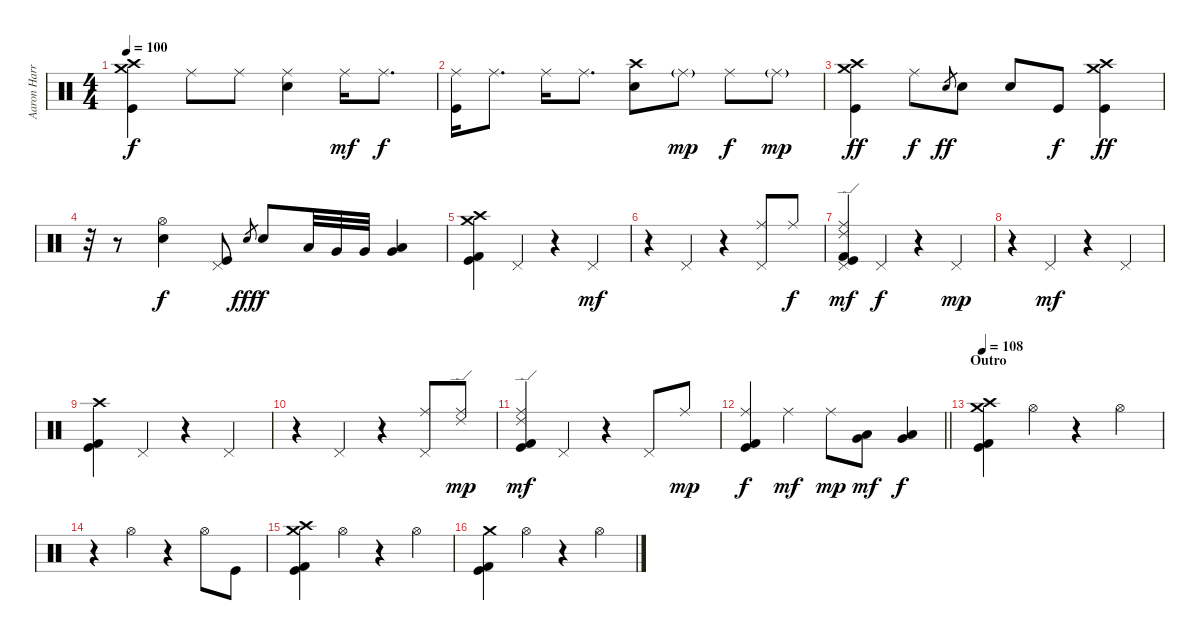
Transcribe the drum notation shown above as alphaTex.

\track ("Aaron Harris" "Aaron Harr") {instrument percussion}
\staff {score}
\articulation defaults
\ts (4 4)
\tempo 100
\clef neutral
\ks c
("Crash medium (hit)" "Crash high (hit)" "Kick (hit)").4{dy f} "Ride (middle)".8 "Ride (middle)".8 ("Ride (middle)" "Electric Snare (hit)").4 "Ride (middle)".16{dy mf} "Ride (middle)".8{d dy f} |
("Ride (middle)" "Kick (hit)").16 "Ride (middle)".8{d} "Ride (middle)".16 "Ride (middle)".8{d} ("Crash high (hit)" "Electric Snare (hit)").8 "Ride (middle)"{g}.8{dy mp} "Ride (middle)".8{dy f} "Ride (middle)"{g}.8{dy mp} |
("Crash medium (hit)" "Crash high (hit)" "Kick (hit)").4{dy ff} "Ride (middle)".8{dy f} "Electric Snare (hit)".8{gr dy ff} "Electric Snare (hit)".8 "Electric Snare (hit)".8 "Kick (hit)".8{dy f} ("Crash medium (hit)" "Crash high (hit)" "Kick (hit)").4{dy ff} |
r.32 r.8 ("Hi-Hat (open)" "Electric Snare (hit)").4{dy f} ("Pedal Hi-Hat (hit)" "Kick (hit)").8 "Electric Snare (hit)".8{gr dy fff} "Electric Snare (hit)".8{dy f} "Low Tom (hit)".32 "Very Low Tom (hit)".32 "Very Low Tom (hit)".32 ("Very Low Tom (hit)" "Low Floor Tom (hit)").4 |
("Crash medium (hit)" "Crash high (hit)" "Kick (hit) 2" "Kick (hit)").4 "Pedal Hi-Hat (hit)".4 r.4 "Pedal Hi-Hat (hit)".4{dy mf} |
r.4 "Pedal Hi-Hat (hit)".4 r.4 ("Ride (middle)" "Pedal Hi-Hat (hit)").8 "Ride (middle)".8{dy f} |
("Ride (edge) 2" "Ride (middle)" "Pedal Hi-Hat (hit)" "Kick (hit) 2" "Kick (hit)").4{dy mf} "Pedal Hi-Hat (hit)".4{dy f} r.4 "Pedal Hi-Hat (hit)".4{dy mp} |
r.4 "Pedal Hi-Hat (hit)".4{dy mf} r.4 "Pedal Hi-Hat (hit)".4 |
("Crash high (hit)" "Kick (hit) 2" "Kick (hit)").4 "Pedal Hi-Hat (hit)".4 r.4 "Pedal Hi-Hat (hit)".4 |
r.4 "Pedal Hi-Hat (hit)".4 r.4 ("Ride (middle)" "Pedal Hi-Hat (hit)").8 ("Ride (middle)" "Ride (edge) 2").8{dy mp} |
("Ride (middle)" "Ride (edge) 2" "Kick (hit) 2" "Kick (hit)").4{dy mf} "Pedal Hi-Hat (hit)".4 r.4 "Pedal Hi-Hat (hit)".8 "Ride (middle)".8{dy mp} |
\barLineRight lightlight
("Ride (middle)" "Kick (hit) 2" "Kick (hit)").4{dy f} "Ride (middle)".4{dy mf} "Ride (middle)".8{dy mp} ("Low Tom (hit)" "Very Low Tom (hit)").8{dy mf} ("Low Tom (hit)" "Very Low Tom (hit)").4{dy f} |
\section ("" "Outro")
\tempo 108
("Crash medium (hit)" "Crash high (hit)" "Kick (hit) 2" "Kick (hit)").4 "Hi-Hat (open)".4 r.4 "Hi-Hat (open)".4 |
r.4 "Hi-Hat (open)".4 r.4 "Hi-Hat (open)".8 "Kick (hit)".8 |
("Crash medium (hit)" "Crash high (hit)" "Kick (hit) 2" "Kick (hit)").4 "Hi-Hat (open)".4 r.4 "Hi-Hat (open)".4 |
("Crash medium (hit)" "Kick (hit) 2" "Kick (hit)").4 "Hi-Hat (open)".4 r.4 "Hi-Hat (open)".4
